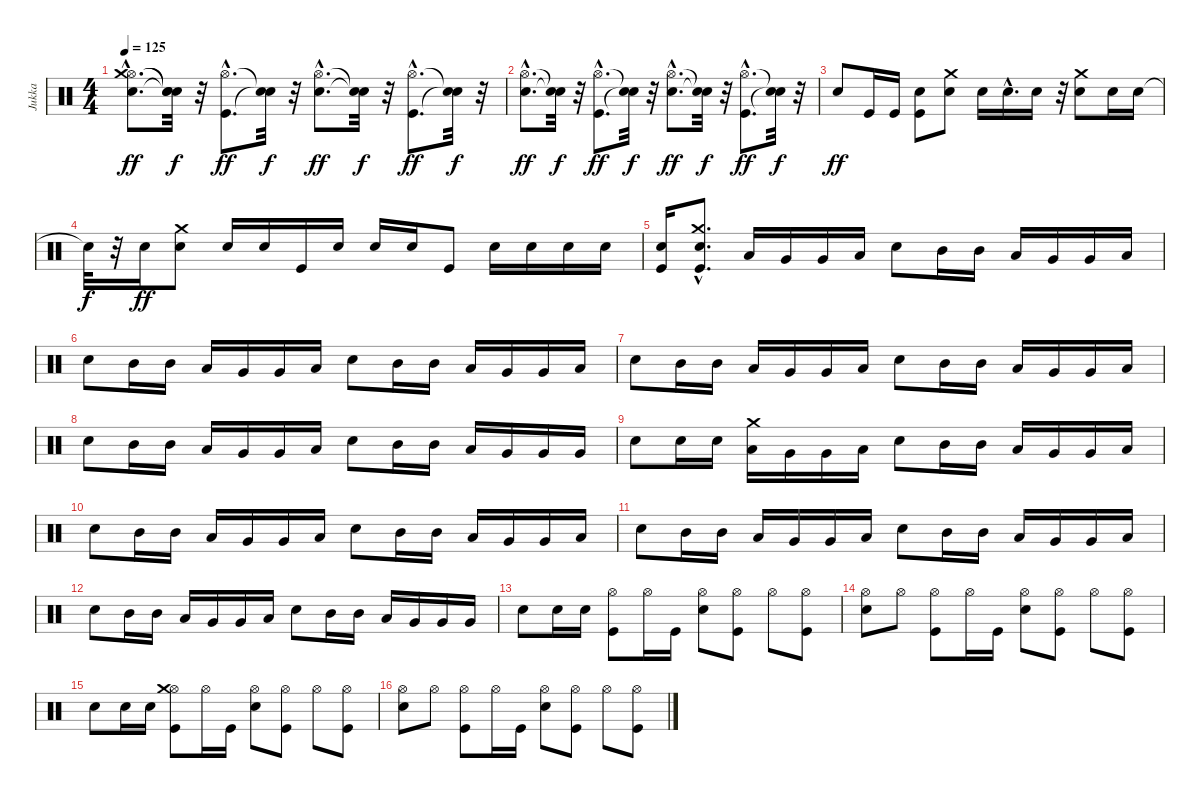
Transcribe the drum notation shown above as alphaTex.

\track ("Jukka" "Jukka") {instrument percussion}
\staff {score}
\articulation defaults
\ts (4 4)
\tempo 125
\clef neutral
\ks c
("Electric Snare (hit)"{hac} "Hi-Hat (open)"{hac} "Crash medium (hit)"{hac}).8{d dy ff} ("Snare (hit)"{t} "Snare (hit)"{t} "Snare (hit)"{t}).32{dy f} r.32 ("Kick (hit)"{hac} "Hi-Hat (open)"{hac}).8{d dy ff} ("Snare (hit)"{t} "Snare (hit)"{t}).32{dy f} r.32 ("Electric Snare (hit)"{hac} "Hi-Hat (open)"{hac}).8{d dy ff} ("Snare (hit)"{t} "Snare (hit)"{t}).32{dy f} r.32 ("Kick (hit)"{hac} "Hi-Hat (open)"{hac}).8{d dy ff} ("Snare (hit)"{t} "Snare (hit)"{t}).32{dy f} r.32 |
("Electric Snare (hit)"{hac} "Hi-Hat (open)"{hac}).8{d dy ff} ("Snare (hit)"{t} "Snare (hit)"{t}).32{dy f} r.32 ("Kick (hit)"{hac} "Hi-Hat (open)"{hac}).8{d dy ff} ("Snare (hit)"{t} "Snare (hit)"{t}).32{dy f} r.32 ("Electric Snare (hit)"{hac} "Hi-Hat (open)"{hac}).8{d dy ff} ("Snare (hit)"{t} "Snare (hit)"{t}).32{dy f} r.32 ("Kick (hit)"{hac} "Hi-Hat (open)"{hac}).8{d dy ff} ("Snare (hit)"{t} "Snare (hit)"{t}).32{dy f} r.32 |
"Electric Snare (hit)".8{dy ff} "Kick (hit)".16 "Kick (hit)".16 ("Kick (hit)" "Electric Snare (hit)").8 ("Electric Snare (hit)" "Crash medium (hit)").8 "Electric Snare (hit)".16 "Electric Snare (hit)"{hac}.16{d} "Electric Snare (hit)".16 r.32 ("Electric Snare (hit)" "Crash medium (hit)").8 "Electric Snare (hit)".16 "Electric Snare (hit)".16 |
"Snare (hit)"{t}.32{dy f} r.32 "Electric Snare (hit)".16{dy ff} ("Electric Snare (hit)" "Crash medium (hit)").8 "Electric Snare (hit)".16 "Electric Snare (hit)".16 "Kick (hit)".16 "Electric Snare (hit)".16 "Electric Snare (hit)".16 "Electric Snare (hit)".16 "Kick (hit)".8 "Electric Snare (hit)".16 "Electric Snare (hit)".16 "Electric Snare (hit)".16 "Electric Snare (hit)".16 |
("Kick (hit)" "Electric Snare (hit)").16 ("Kick (hit)"{hac} "Electric Snare (hit)"{hac} "Crash medium (hit)"{hac}).8{d} "Low Tom (hit)".16 "Very Low Tom (hit)".16 "Very Low Tom (hit)".16 "Low Floor Tom (hit)".16 "Electric Snare (hit)".8 "Mid Tom (hit)".16 "Mid Tom (hit)".16 "Low Tom (hit)".16 "Very Low Tom (hit)".16 "Very Low Tom (hit)".16 "Low Floor Tom (hit)".16 |
"Electric Snare (hit)".8 "Mid Tom (hit)".16 "Mid Tom (hit)".16 "Low Tom (hit)".16 "Very Low Tom (hit)".16 "Very Low Tom (hit)".16 "Low Floor Tom (hit)".16 "Electric Snare (hit)".8 "Mid Tom (hit)".16 "Mid Tom (hit)".16 "Low Tom (hit)".16 "Very Low Tom (hit)".16 "Very Low Tom (hit)".16 "Low Floor Tom (hit)".16 |
"Electric Snare (hit)".8 "Mid Tom (hit)".16 "Mid Tom (hit)".16 "Low Tom (hit)".16 "Very Low Tom (hit)".16 "Very Low Tom (hit)".16 "Low Floor Tom (hit)".16 "Electric Snare (hit)".8 "Mid Tom (hit)".16 "Mid Tom (hit)".16 "Low Tom (hit)".16 "Very Low Tom (hit)".16 "Very Low Tom (hit)".16 "Low Floor Tom (hit)".16 |
"Electric Snare (hit)".8 "Mid Tom (hit)".16 "Mid Tom (hit)".16 "Low Tom (hit)".16 "Very Low Tom (hit)".16 "Very Low Tom (hit)".16 "Low Floor Tom (hit)".16 "Electric Snare (hit)".8 "Mid Tom (hit)".16 "Mid Tom (hit)".16 "Low Tom (hit)".16 "Very Low Tom (hit)".16 "Very Low Tom (hit)".16 "Very Low Tom (hit)".16 |
"Electric Snare (hit)".8 "Electric Snare (hit)".16 "Electric Snare (hit)".16 ("Low Tom (hit)" "Crash medium (hit)").16 "Very Low Tom (hit)".16 "Very Low Tom (hit)".16 "Low Floor Tom (hit)".16 "Electric Snare (hit)".8 "Mid Tom (hit)".16 "Mid Tom (hit)".16 "Low Tom (hit)".16 "Very Low Tom (hit)".16 "Very Low Tom (hit)".16 "Low Floor Tom (hit)".16 |
"Electric Snare (hit)".8 "Mid Tom (hit)".16 "Mid Tom (hit)".16 "Low Tom (hit)".16 "Very Low Tom (hit)".16 "Very Low Tom (hit)".16 "Low Floor Tom (hit)".16 "Electric Snare (hit)".8 "Mid Tom (hit)".16 "Mid Tom (hit)".16 "Low Tom (hit)".16 "Very Low Tom (hit)".16 "Very Low Tom (hit)".16 "Low Floor Tom (hit)".16 |
"Electric Snare (hit)".8 "Mid Tom (hit)".16 "Mid Tom (hit)".16 "Low Tom (hit)".16 "Very Low Tom (hit)".16 "Very Low Tom (hit)".16 "Low Floor Tom (hit)".16 "Electric Snare (hit)".8 "Mid Tom (hit)".16 "Mid Tom (hit)".16 "Low Tom (hit)".16 "Very Low Tom (hit)".16 "Very Low Tom (hit)".16 "Low Floor Tom (hit)".16 |
"Electric Snare (hit)".8 "Mid Tom (hit)".16 "Mid Tom (hit)".16 "Low Tom (hit)".16 "Very Low Tom (hit)".16 "Very Low Tom (hit)".16 "Low Floor Tom (hit)".16 "Electric Snare (hit)".8 "Mid Tom (hit)".16 "Mid Tom (hit)".16 "Low Tom (hit)".16 "Very Low Tom (hit)".16 "Very Low Tom (hit)".16 "Very Low Tom (hit)".16 |
"Electric Snare (hit)".8 "Electric Snare (hit)".16 "Electric Snare (hit)".16 ("Kick (hit)" "Hi-Hat (open)").8 "Hi-Hat (open)".16 "Kick (hit)".16 ("Electric Snare (hit)" "Hi-Hat (open)").8 ("Kick (hit)" "Hi-Hat (open)").8 "Hi-Hat (open)".8 ("Kick (hit)" "Hi-Hat (open)").8 |
("Electric Snare (hit)" "Hi-Hat (open)").8 "Hi-Hat (open)".8 ("Kick (hit)" "Hi-Hat (open)").8 "Hi-Hat (open)".16 "Kick (hit)".16 ("Electric Snare (hit)" "Hi-Hat (open)").8 ("Kick (hit)" "Hi-Hat (open)").8 "Hi-Hat (open)".8 ("Kick (hit)" "Hi-Hat (open)").8 |
"Electric Snare (hit)".8 "Electric Snare (hit)".16 "Electric Snare (hit)".16 ("Kick (hit)" "Hi-Hat (open)" "Crash medium (hit)").8 "Hi-Hat (open)".16 "Kick (hit)".16 ("Electric Snare (hit)" "Hi-Hat (open)").8 ("Kick (hit)" "Hi-Hat (open)").8 "Hi-Hat (open)".8 ("Kick (hit)" "Hi-Hat (open)").8 |
("Electric Snare (hit)" "Hi-Hat (open)").8 "Hi-Hat (open)".8 ("Kick (hit)" "Hi-Hat (open)").8 "Hi-Hat (open)".16 "Kick (hit)".16 ("Electric Snare (hit)" "Hi-Hat (open)").8 ("Kick (hit)" "Hi-Hat (open)").8 "Hi-Hat (open)".8 ("Kick (hit)" "Hi-Hat (open)").8
